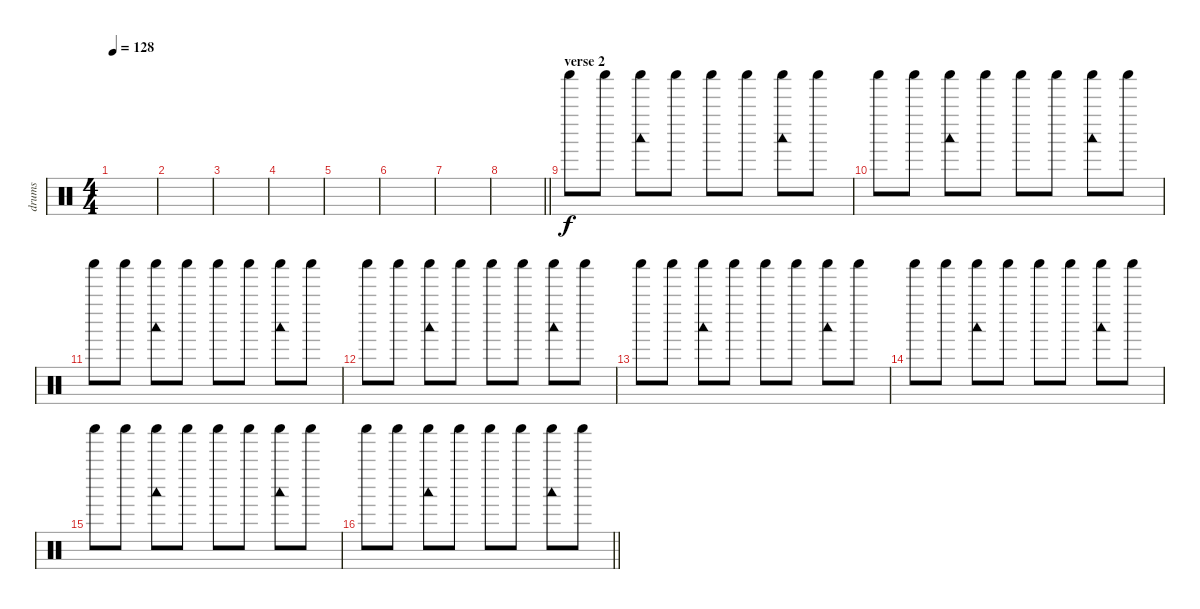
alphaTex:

\track ("drums" "drums") {instrument percussion}
\staff {score}
\articulation defaults
\ts (4 4)
\tempo 128
\clef neutral
\ks c
|
|
|
|
|
|
|
\barLineRight lightlight
|
\section ("" "verse 2")
"Shaker (hit)".8 "Shaker (hit)".8 ("Shaker (hit)" "Woodblock low (hit)").8 "Shaker (hit)".8 "Shaker (hit)".8 "Shaker (hit)".8 ("Shaker (hit)" "Woodblock low (hit)").8 "Shaker (hit)".8 |
"Shaker (hit)".8 "Shaker (hit)".8 ("Shaker (hit)" "Woodblock low (hit)").8 "Shaker (hit)".8 "Shaker (hit)".8 "Shaker (hit)".8 ("Shaker (hit)" "Woodblock low (hit)").8 "Shaker (hit)".8 |
"Shaker (hit)".8 "Shaker (hit)".8 ("Shaker (hit)" "Woodblock low (hit)").8 "Shaker (hit)".8 "Shaker (hit)".8 "Shaker (hit)".8 ("Shaker (hit)" "Woodblock low (hit)").8 "Shaker (hit)".8 |
"Shaker (hit)".8 "Shaker (hit)".8 ("Shaker (hit)" "Woodblock low (hit)").8 "Shaker (hit)".8 "Shaker (hit)".8 "Shaker (hit)".8 ("Shaker (hit)" "Woodblock low (hit)").8 "Shaker (hit)".8 |
"Shaker (hit)".8 "Shaker (hit)".8 ("Shaker (hit)" "Woodblock low (hit)").8 "Shaker (hit)".8 "Shaker (hit)".8 "Shaker (hit)".8 ("Shaker (hit)" "Woodblock low (hit)").8 "Shaker (hit)".8 |
"Shaker (hit)".8 "Shaker (hit)".8 ("Shaker (hit)" "Woodblock low (hit)").8 "Shaker (hit)".8 "Shaker (hit)".8 "Shaker (hit)".8 ("Shaker (hit)" "Woodblock low (hit)").8 "Shaker (hit)".8 |
"Shaker (hit)".8 "Shaker (hit)".8 ("Shaker (hit)" "Woodblock low (hit)").8 "Shaker (hit)".8 "Shaker (hit)".8 "Shaker (hit)".8 ("Shaker (hit)" "Woodblock low (hit)").8 "Shaker (hit)".8 |
\barLineRight lightlight "Shaker (hit)".8 "Shaker (hit)".8
("Shaker (hit)" "Woodblock low (hit)").8 "Shaker (hit)".8 "Shaker (hit)".8 "Shaker (hit)".8 ("Shaker (hit)" "Woodblock low (hit)").8 "Shaker (hit)".8
